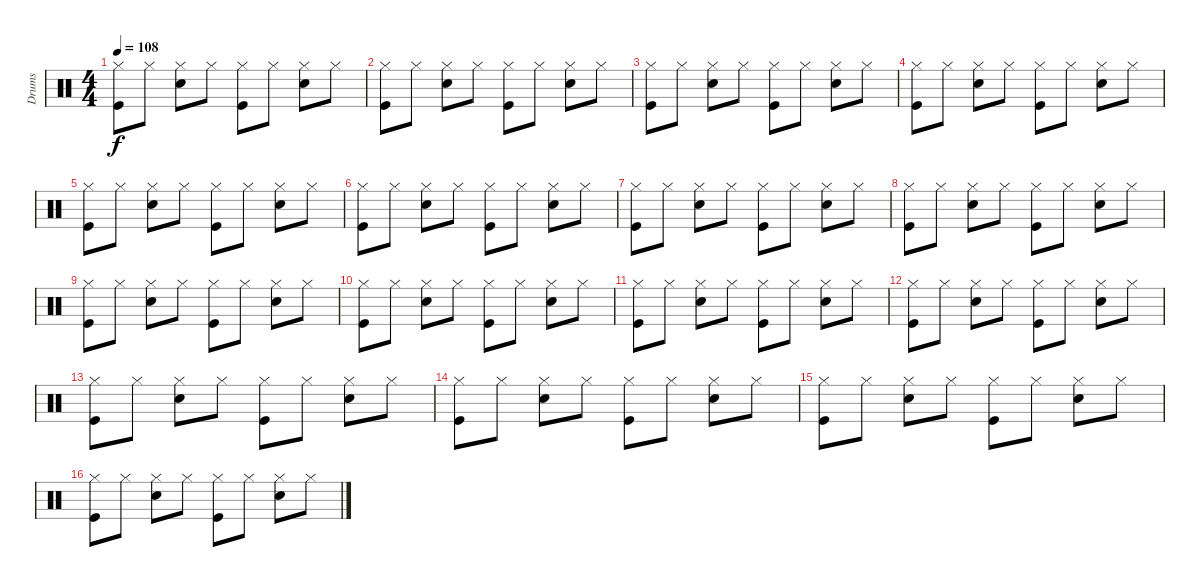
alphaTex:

\track ("Drums" "Drums") {instrument percussion}
\staff {score}
\articulation defaults
\ts (4 4)
\tempo 108
\clef neutral
\ks c
("Kick (hit)" "Hi-Hat (closed)").8{dy f} "Hi-Hat (closed)".8 ("Snare (hit) 2" "Hi-Hat (closed)").8 "Hi-Hat (closed)".8 ("Kick (hit)" "Hi-Hat (closed)").8 "Hi-Hat (closed)".8 ("Hi-Hat (closed)" "Snare (hit) 2").8 "Hi-Hat (closed)".8 |
("Kick (hit)" "Hi-Hat (closed)").8 "Hi-Hat (closed)".8 ("Snare (hit) 2" "Hi-Hat (closed)").8 "Hi-Hat (closed)".8 ("Kick (hit)" "Hi-Hat (closed)").8 "Hi-Hat (closed)".8 ("Hi-Hat (closed)" "Snare (hit) 2").8 "Hi-Hat (closed)".8 |
("Kick (hit)" "Hi-Hat (closed)").8 "Hi-Hat (closed)".8 ("Snare (hit) 2" "Hi-Hat (closed)").8 "Hi-Hat (closed)".8 ("Kick (hit)" "Hi-Hat (closed)").8 "Hi-Hat (closed)".8 ("Hi-Hat (closed)" "Snare (hit) 2").8 "Hi-Hat (closed)".8 |
("Kick (hit)" "Hi-Hat (closed)").8 "Hi-Hat (closed)".8 ("Snare (hit) 2" "Hi-Hat (closed)").8 "Hi-Hat (closed)".8 ("Kick (hit)" "Hi-Hat (closed)").8 "Hi-Hat (closed)".8 ("Hi-Hat (closed)" "Snare (hit) 2").8 "Hi-Hat (closed)".8 |
("Kick (hit)" "Hi-Hat (closed)").8 "Hi-Hat (closed)".8 ("Snare (hit) 2" "Hi-Hat (closed)").8 "Hi-Hat (closed)".8 ("Kick (hit)" "Hi-Hat (closed)").8 "Hi-Hat (closed)".8 ("Hi-Hat (closed)" "Snare (hit) 2").8 "Hi-Hat (closed)".8 |
("Kick (hit)" "Hi-Hat (closed)").8 "Hi-Hat (closed)".8 ("Snare (hit) 2" "Hi-Hat (closed)").8 "Hi-Hat (closed)".8 ("Kick (hit)" "Hi-Hat (closed)").8 "Hi-Hat (closed)".8 ("Hi-Hat (closed)" "Snare (hit) 2").8 "Hi-Hat (closed)".8 |
("Kick (hit)" "Hi-Hat (closed)").8 "Hi-Hat (closed)".8 ("Snare (hit) 2" "Hi-Hat (closed)").8 "Hi-Hat (closed)".8 ("Kick (hit)" "Hi-Hat (closed)").8 "Hi-Hat (closed)".8 ("Hi-Hat (closed)" "Snare (hit) 2").8 "Hi-Hat (closed)".8 |
("Kick (hit)" "Hi-Hat (closed)").8 "Hi-Hat (closed)".8 ("Snare (hit) 2" "Hi-Hat (closed)").8 "Hi-Hat (closed)".8 ("Kick (hit)" "Hi-Hat (closed)").8 "Hi-Hat (closed)".8 ("Hi-Hat (closed)" "Snare (hit) 2").8 "Hi-Hat (closed)".8 |
("Kick (hit)" "Hi-Hat (closed)").8 "Hi-Hat (closed)".8 ("Snare (hit) 2" "Hi-Hat (closed)").8 "Hi-Hat (closed)".8 ("Kick (hit)" "Hi-Hat (closed)").8 "Hi-Hat (closed)".8 ("Hi-Hat (closed)" "Snare (hit) 2").8 "Hi-Hat (closed)".8 |
("Kick (hit)" "Hi-Hat (closed)").8 "Hi-Hat (closed)".8 ("Snare (hit) 2" "Hi-Hat (closed)").8 "Hi-Hat (closed)".8 ("Kick (hit)" "Hi-Hat (closed)").8 "Hi-Hat (closed)".8 ("Hi-Hat (closed)" "Snare (hit) 2").8 "Hi-Hat (closed)".8 |
("Kick (hit)" "Hi-Hat (closed)").8 "Hi-Hat (closed)".8 ("Snare (hit) 2" "Hi-Hat (closed)").8 "Hi-Hat (closed)".8 ("Kick (hit)" "Hi-Hat (closed)").8 "Hi-Hat (closed)".8 ("Hi-Hat (closed)" "Snare (hit) 2").8 "Hi-Hat (closed)".8 |
("Kick (hit)" "Hi-Hat (closed)").8 "Hi-Hat (closed)".8 ("Snare (hit) 2" "Hi-Hat (closed)").8 "Hi-Hat (closed)".8 ("Kick (hit)" "Hi-Hat (closed)").8 "Hi-Hat (closed)".8 ("Hi-Hat (closed)" "Snare (hit) 2").8 "Hi-Hat (closed)".8 |
("Kick (hit)" "Hi-Hat (closed)").8 "Hi-Hat (closed)".8 ("Snare (hit) 2" "Hi-Hat (closed)").8 "Hi-Hat (closed)".8 ("Kick (hit)" "Hi-Hat (closed)").8 "Hi-Hat (closed)".8 ("Hi-Hat (closed)" "Snare (hit) 2").8 "Hi-Hat (closed)".8 |
("Kick (hit)" "Hi-Hat (closed)").8 "Hi-Hat (closed)".8 ("Snare (hit) 2" "Hi-Hat (closed)").8 "Hi-Hat (closed)".8 ("Kick (hit)" "Hi-Hat (closed)").8 "Hi-Hat (closed)".8 ("Hi-Hat (closed)" "Snare (hit) 2").8 "Hi-Hat (closed)".8 |
("Kick (hit)" "Hi-Hat (closed)").8 "Hi-Hat (closed)".8 ("Snare (hit) 2" "Hi-Hat (closed)").8 "Hi-Hat (closed)".8 ("Kick (hit)" "Hi-Hat (closed)").8 "Hi-Hat (closed)".8 ("Hi-Hat (closed)" "Snare (hit) 2").8 "Hi-Hat (closed)".8 |
("Kick (hit)" "Hi-Hat (closed)").8 "Hi-Hat (closed)".8 ("Snare (hit) 2" "Hi-Hat (closed)").8 "Hi-Hat (closed)".8 ("Kick (hit)" "Hi-Hat (closed)").8 "Hi-Hat (closed)".8 ("Hi-Hat (closed)" "Snare (hit) 2").8 "Hi-Hat (closed)".8
